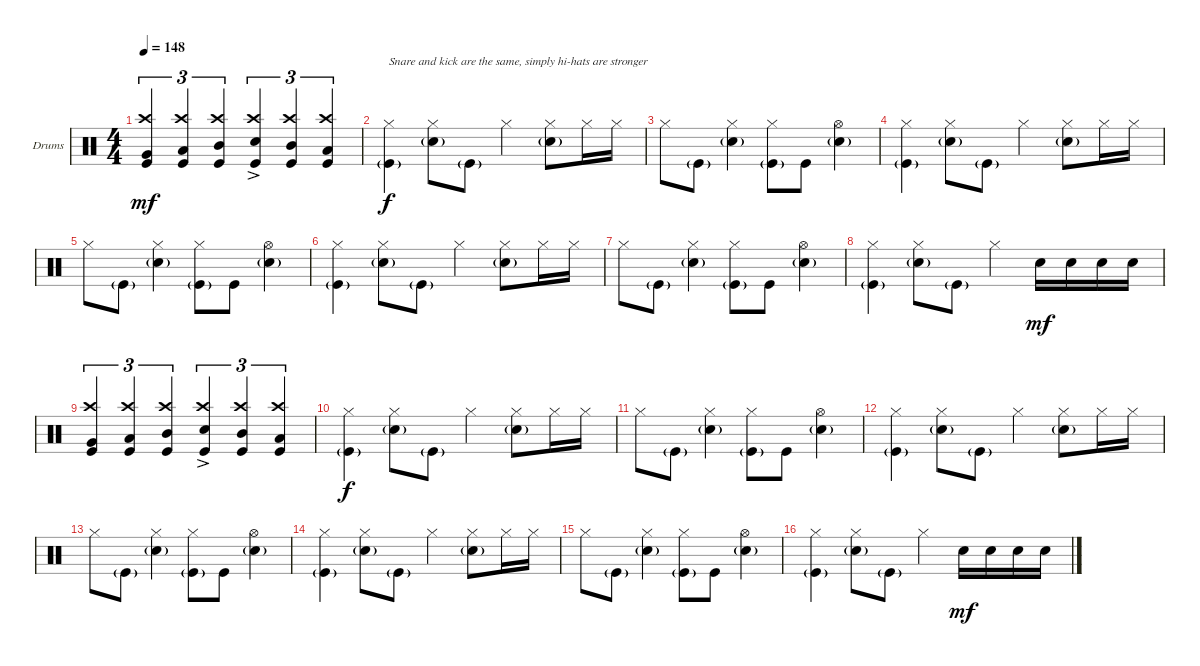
\bracketExtendMode groupsimilarinstruments
\firstSystemTrackNameOrientation horizontal
\otherSystemsTrackNameOrientation horizontal
\track ("Drumkit" "Drums") {instrument percussion}
\staff {score}
\articulation defaults
\ts (4 4)
\tempo 148
\clef neutral
\scale
0.333333
\ks c
("Kick (hit)" "Crash high (hit)" "Very Low Tom (hit)").4{tu (3 2) dy mf} ("Kick (hit)" "Crash high (hit)" "Low Tom (hit)").4{tu (3 2)} ("Kick (hit)" "Crash high (hit)" "Mid Tom (hit)").4{tu (3 2)} ("Kick (hit)" "Crash high (hit)" "Snare (hit) 2"{ac}).4{tu (3 2)} ("Kick (hit)" "Crash high (hit)" "Mid Tom (hit)").4{tu (3 2)} ("Kick (hit)" "Crash high (hit)" "Low Tom (hit)").4{tu (3 2)} |
\scale
0.333333 ("Kick (hit)"{g} "Hi-Hat (closed)").4{txt "Snare and kick are the same, simply hi-hats are stronger" dy f} ("Snare (hit) 2"{g} "Hi-Hat (closed)").8 "Kick (hit)"{g}.8 "Hi-Hat (closed)".4 ("Snare (hit) 2"{g} "Hi-Hat (closed)").8 "Hi-Hat (closed)".16 "Hi-Hat (closed)".16 |
\scale
0.333333 "Hi-Hat (closed)".8 "Kick (hit)"{g}.8 ("Snare (hit) 2"{g} "Hi-Hat (closed)").4 ("Kick (hit)"{g} "Hi-Hat (closed)").8 "Kick (hit)".8 ("Snare (hit) 2"{g} "Hi-Hat (open)").4 |
\scale
0.333333 ("Kick (hit)"{g} "Hi-Hat (closed)").4 ("Snare (hit) 2"{g} "Hi-Hat (closed)").8 "Kick (hit)"{g}.8 "Hi-Hat (closed)".4 ("Snare (hit) 2"{g} "Hi-Hat (closed)").8 "Hi-Hat (closed)".16 "Hi-Hat (closed)".16 |
\scale
0.333333 "Hi-Hat (closed)".8 "Kick (hit)"{g}.8 ("Snare (hit) 2"{g} "Hi-Hat (closed)").4 ("Kick (hit)"{g} "Hi-Hat (closed)").8 "Kick (hit)".8 ("Snare (hit) 2"{g} "Hi-Hat (open)").4 |
\scale
0.333333 ("Kick (hit)"{g} "Hi-Hat (closed)").4 ("Snare (hit) 2"{g} "Hi-Hat (closed)").8 "Kick (hit)"{g}.8 "Hi-Hat (closed)".4 ("Snare (hit) 2"{g} "Hi-Hat (closed)").8 "Hi-Hat (closed)".16 "Hi-Hat (closed)".16 |
\scale
0.333333 "Hi-Hat (closed)".8 "Kick (hit)"{g}.8 ("Snare (hit) 2"{g} "Hi-Hat (closed)").4 ("Kick (hit)"{g} "Hi-Hat (closed)").8 "Kick (hit)".8 ("Snare (hit) 2"{g} "Hi-Hat (open)").4 |
\scale
0.333333 ("Kick (hit)"{g} "Hi-Hat (closed)").4 ("Snare (hit) 2"{g} "Hi-Hat (closed)").8 "Kick (hit)"{g}.8 "Hi-Hat (closed)".4 "Snare (hit) 2".16{dy mf} "Snare (hit) 2".16 "Snare (hit) 2".16 "Snare (hit) 2".16 |
\scale
0.333333 ("Kick (hit)" "Crash high (hit)" "Very Low Tom (hit)").4{tu (3 2)} ("Kick (hit)" "Crash high (hit)" "Low Tom (hit)").4{tu (3 2)} ("Kick (hit)" "Crash high (hit)" "Mid Tom (hit)").4{tu (3 2)} ("Kick (hit)" "Crash high (hit)" "Snare (hit) 2"{ac}).4{tu (3 2)} ("Kick (hit)" "Crash high (hit)" "Mid Tom (hit)").4{tu (3 2)} ("Kick (hit)" "Crash high (hit)" "Low Tom (hit)").4{tu (3 2)} |
\scale
0.333333 ("Kick (hit)"{g} "Hi-Hat (closed)").4{dy f} ("Snare (hit) 2"{g} "Hi-Hat (closed)").8 "Kick (hit)"{g}.8 "Hi-Hat (closed)".4 ("Snare (hit) 2"{g} "Hi-Hat (closed)").8 "Hi-Hat (closed)".16 "Hi-Hat (closed)".16 |
\scale
0.333333 "Hi-Hat (closed)".8 "Kick (hit)"{g}.8 ("Snare (hit) 2"{g} "Hi-Hat (closed)").4 ("Kick (hit)"{g} "Hi-Hat (closed)").8 "Kick (hit)".8 ("Snare (hit) 2"{g} "Hi-Hat (open)").4 |
\scale
0.333333 ("Kick (hit)"{g} "Hi-Hat (closed)").4 ("Snare (hit) 2"{g} "Hi-Hat (closed)").8 "Kick (hit)"{g}.8 "Hi-Hat (closed)".4 ("Snare (hit) 2"{g} "Hi-Hat (closed)").8 "Hi-Hat (closed)".16 "Hi-Hat (closed)".16 |
\scale
0.333333 "Hi-Hat (closed)".8 "Kick (hit)"{g}.8 ("Snare (hit) 2"{g} "Hi-Hat (closed)").4 ("Kick (hit)"{g} "Hi-Hat (closed)").8 "Kick (hit)".8 ("Snare (hit) 2"{g} "Hi-Hat (open)").4 |
\scale
0.333333 ("Kick (hit)"{g} "Hi-Hat (closed)").4 ("Snare (hit) 2"{g} "Hi-Hat (closed)").8 "Kick (hit)"{g}.8 "Hi-Hat (closed)".4 ("Snare (hit) 2"{g} "Hi-Hat (closed)").8 "Hi-Hat (closed)".16 "Hi-Hat (closed)".16 |
\scale
0.333333 "Hi-Hat (closed)".8 "Kick (hit)"{g}.8 ("Snare (hit) 2"{g} "Hi-Hat (closed)").4 ("Kick (hit)"{g} "Hi-Hat (closed)").8 "Kick (hit)".8 ("Snare (hit) 2"{g} "Hi-Hat (open)").4 |
\scale
0.333333 ("Kick (hit)"{g} "Hi-Hat (closed)").4 ("Snare (hit) 2"{g} "Hi-Hat (closed)").8 "Kick (hit)"{g}.8 "Hi-Hat (closed)".4 "Snare (hit) 2".16{dy mf} "Snare (hit) 2".16 "Snare (hit) 2".16 "Snare (hit) 2".16
